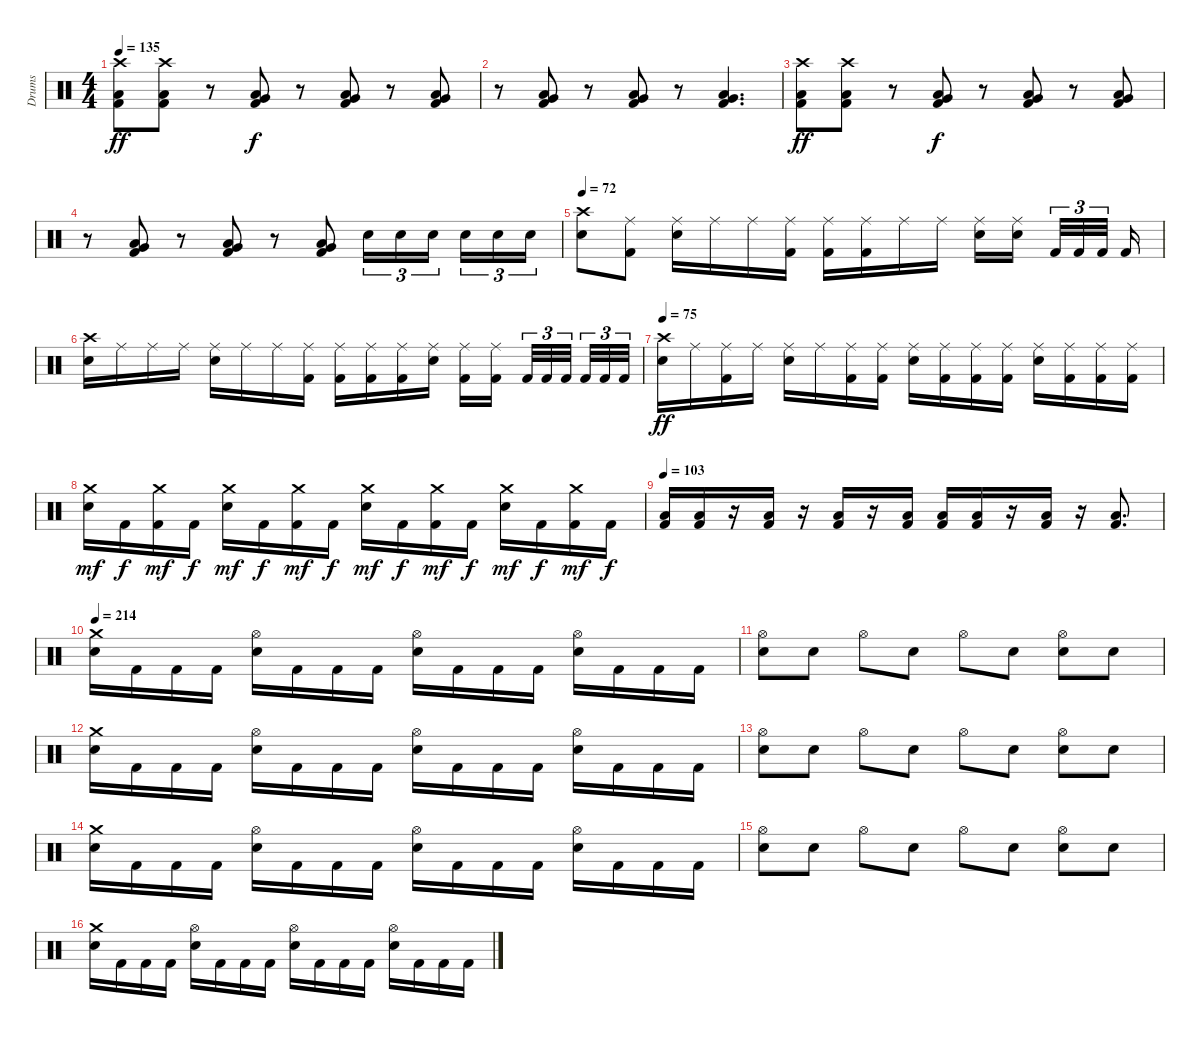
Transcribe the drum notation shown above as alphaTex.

\track ("Drums" "Drums") {instrument percussion}
\staff {score}
\articulation defaults
\ts (4 4)
\tempo 135
\clef neutral
\ks c
("Crash high (hit)" "Low Floor Tom (hit)" "Kick (hit) 2").8{dy ff} ("Crash high (hit)" "Low Floor Tom (hit)" "Kick (hit) 2").8 r.8 ("Very Low Tom (hit)" "Low Floor Tom (hit)" "Kick (hit) 2").8{dy f} r.8 ("Very Low Tom (hit)" "Low Floor Tom (hit)" "Kick (hit) 2").8 r.8 ("Very Low Tom (hit)" "Low Floor Tom (hit)" "Kick (hit) 2").8 |
r.8 ("Very Low Tom (hit)" "Low Floor Tom (hit)" "Kick (hit) 2").8 r.8 ("Very Low Tom (hit)" "Low Floor Tom (hit)" "Kick (hit) 2").8 r.8 ("Very Low Tom (hit)" "Low Floor Tom (hit)" "Kick (hit) 2").4{d} |
("Crash high (hit)" "Low Floor Tom (hit)" "Kick (hit) 2").8{dy ff} ("Crash high (hit)" "Low Floor Tom (hit)" "Kick (hit) 2").8 r.8 ("Very Low Tom (hit)" "Low Floor Tom (hit)" "Kick (hit) 2").8{dy f} r.8 ("Very Low Tom (hit)" "Low Floor Tom (hit)" "Kick (hit) 2").8 r.8 ("Very Low Tom (hit)" "Low Floor Tom (hit)" "Kick (hit) 2").8 |
r.8 ("Very Low Tom (hit)" "Low Floor Tom (hit)" "Kick (hit) 2").8 r.8 ("Very Low Tom (hit)" "Low Floor Tom (hit)" "Kick (hit) 2").8 r.8 ("Very Low Tom (hit)" "Low Floor Tom (hit)" "Kick (hit) 2").8 "Snare (hit) 2".16{tu (3 2)} "Snare (hit) 2".16{tu (3 2)} "Snare (hit) 2".16{tu (3 2) beam splitsecondary} "Snare (hit) 2".16{tu (3 2)} "Snare (hit) 2".16{tu (3 2)} "Snare (hit) 2".16{tu (3 2)} |
\tempo 72
("Crash high (hit)" "Snare (hit) 2").8 ("Ride (middle)" "Kick (hit) 2").8 ("Ride (middle)" "Snare (hit) 2").16 "Ride (middle)".16 "Ride (middle)".16 ("Ride (middle)" "Kick (hit) 2").16 ("Ride (middle)" "Kick (hit) 2").16 ("Ride (middle)" "Kick (hit) 2").16 "Ride (middle)".16 "Ride (middle)".16 ("Ride (middle)" "Snare (hit) 2").16 ("Ride (middle)" "Snare (hit) 2").16{beam splitsecondary} "Kick (hit) 2".32{tu (3 2)} "Kick (hit) 2".32{tu (3 2)} "Kick (hit) 2".32{tu (3 2) beam splitsecondary} "Kick (hit) 2".16 |
("Crash high (hit)" "Snare (hit) 2").16 "Ride (middle)".16 "Ride (middle)".16 "Ride (middle)".16 ("Ride (middle)" "Snare (hit) 2").16 "Ride (middle)".16 "Ride (middle)".16 ("Ride (middle)" "Kick (hit) 2").16 ("Ride (middle)" "Kick (hit) 2").16 ("Ride (middle)" "Kick (hit) 2").16 ("Ride (middle)" "Kick (hit) 2").16 ("Ride (middle)" "Snare (hit) 2").16 ("Ride (middle)" "Kick (hit) 2").16 ("Ride (middle)" "Kick (hit) 2").16{beam splitsecondary} "Kick (hit) 2".32{tu (3 2)} "Kick (hit) 2".32{tu (3 2)} "Kick (hit) 2".32{tu (3 2) beam splitsecondary} "Kick (hit) 2".32{tu (3 2)} "Kick (hit) 2".32{tu (3 2)} "Kick (hit) 2".32{tu (3 2)} |
\tempo 75
("Crash high (hit)" "Snare (hit) 2").16{dy ff} "Ride (middle)".16 ("Ride (middle)" "Kick (hit) 2").16 "Ride (middle)".16 ("Ride (middle)" "Snare (hit) 2").16 "Ride (middle)".16 ("Ride (middle)" "Kick (hit) 2").16 ("Ride (middle)" "Kick (hit) 2").16 ("Ride (middle)" "Snare (hit) 2").16 ("Ride (middle)" "Kick (hit) 2").16 ("Ride (middle)" "Kick (hit) 2").16 ("Ride (middle)" "Kick (hit) 2").16 ("Ride (middle)" "Snare (hit) 2").16 ("Ride (middle)" "Kick (hit) 2").16 ("Ride (middle)" "Kick (hit) 2").16 ("Ride (middle)" "Kick (hit) 2").16 |
("Crash medium (hit)" "Snare (hit) 2").16{dy mf} "Kick (hit) 2".16{dy f} ("Crash medium (hit)" "Kick (hit) 2").16{dy mf} "Kick (hit) 2".16{dy f} ("Crash medium (hit)" "Snare (hit) 2").16{dy mf} "Kick (hit) 2".16{dy f} ("Crash medium (hit)" "Kick (hit) 2").16{dy mf} "Kick (hit) 2".16{dy f} ("Crash medium (hit)" "Snare (hit) 2").16{dy mf} "Kick (hit) 2".16{dy f} ("Crash medium (hit)" "Kick (hit) 2").16{dy mf} "Kick (hit) 2".16{dy f} ("Crash medium (hit)" "Snare (hit) 2").16{dy mf} "Kick (hit) 2".16{dy f} ("Crash medium (hit)" "Kick (hit) 2").16{dy mf} "Kick (hit) 2".16{dy f} |
\tempo 103
("Low Floor Tom (hit)" "Kick (hit) 2").16 ("Low Floor Tom (hit)" "Kick (hit) 2").16 r.16 ("Low Floor Tom (hit)" "Kick (hit) 2").16 r.16 ("Low Floor Tom (hit)" "Kick (hit) 2").16 r.16 ("Low Floor Tom (hit)" "Kick (hit) 2").16 ("Low Floor Tom (hit)" "Kick (hit) 2").16 ("Low Floor Tom (hit)" "Kick (hit) 2").16 r.16 ("Low Floor Tom (hit)" "Kick (hit) 2").16 r.16 ("Low Floor Tom (hit)" "Kick (hit) 2").8{d} |
\tempo 214
("Crash medium (hit)" "Snare (hit) 2").16 "Kick (hit) 2".16 "Kick (hit) 2".16 "Kick (hit) 2".16 ("Hi-Hat (open)" "Snare (hit) 2").16 "Kick (hit) 2".16 "Kick (hit) 2".16 "Kick (hit) 2".16 ("Hi-Hat (open)" "Snare (hit) 2").16 "Kick (hit) 2".16 "Kick (hit) 2".16 "Kick (hit) 2".16 ("Hi-Hat (open)" "Snare (hit) 2").16 "Kick (hit) 2".16 "Kick (hit) 2".16 "Kick (hit) 2".16 |
("Hi-Hat (open)" "Snare (hit) 2").8 "Snare (hit) 2".8 "Hi-Hat (open)".8 "Snare (hit) 2".8 "Hi-Hat (open)".8 "Snare (hit) 2".8 ("Hi-Hat (open)" "Snare (hit) 2").8 "Snare (hit) 2".8 |
("Crash medium (hit)" "Snare (hit) 2").16 "Kick (hit) 2".16 "Kick (hit) 2".16 "Kick (hit) 2".16 ("Hi-Hat (open)" "Snare (hit) 2").16 "Kick (hit) 2".16 "Kick (hit) 2".16 "Kick (hit) 2".16 ("Hi-Hat (open)" "Snare (hit) 2").16 "Kick (hit) 2".16 "Kick (hit) 2".16 "Kick (hit) 2".16 ("Hi-Hat (open)" "Snare (hit) 2").16 "Kick (hit) 2".16 "Kick (hit) 2".16 "Kick (hit) 2".16 |
("Hi-Hat (open)" "Snare (hit) 2").8 "Snare (hit) 2".8 "Hi-Hat (open)".8 "Snare (hit) 2".8 "Hi-Hat (open)".8 "Snare (hit) 2".8 ("Hi-Hat (open)" "Snare (hit) 2").8 "Snare (hit) 2".8 |
("Crash medium (hit)" "Snare (hit) 2").16 "Kick (hit) 2".16 "Kick (hit) 2".16 "Kick (hit) 2".16 ("Hi-Hat (open)" "Snare (hit) 2").16 "Kick (hit) 2".16 "Kick (hit) 2".16 "Kick (hit) 2".16 ("Hi-Hat (open)" "Snare (hit) 2").16 "Kick (hit) 2".16 "Kick (hit) 2".16 "Kick (hit) 2".16 ("Hi-Hat (open)" "Snare (hit) 2").16 "Kick (hit) 2".16 "Kick (hit) 2".16 "Kick (hit) 2".16 |
("Hi-Hat (open)" "Snare (hit) 2").8 "Snare (hit) 2".8 "Hi-Hat (open)".8 "Snare (hit) 2".8 "Hi-Hat (open)".8 "Snare (hit) 2".8 ("Hi-Hat (open)" "Snare (hit) 2").8 "Snare (hit) 2".8 |
("Crash medium (hit)" "Snare (hit) 2").16 "Kick (hit) 2".16 "Kick (hit) 2".16 "Kick (hit) 2".16 ("Hi-Hat (open)" "Snare (hit) 2").16 "Kick (hit) 2".16 "Kick (hit) 2".16 "Kick (hit) 2".16 ("Hi-Hat (open)" "Snare (hit) 2").16 "Kick (hit) 2".16 "Kick (hit) 2".16 "Kick (hit) 2".16 ("Hi-Hat (open)" "Snare (hit) 2").16 "Kick (hit) 2".16 "Kick (hit) 2".16 "Kick (hit) 2".16
